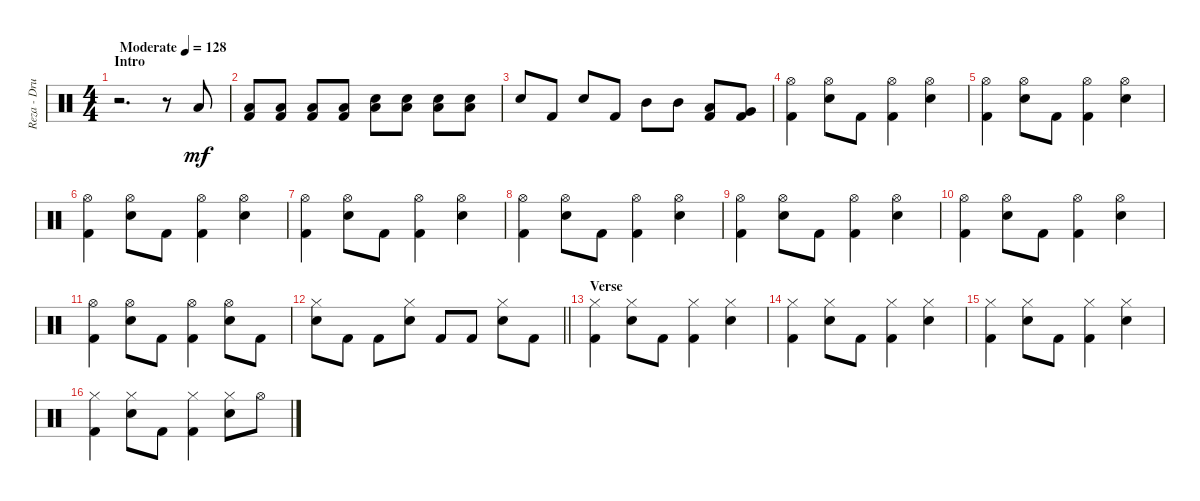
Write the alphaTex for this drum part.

\track ("Reza - Drum" "Reza - Dru") {instrument percussion}
\staff {score}
\articulation defaults
\ts (4 4)
\section ("" "Intro")
\tempo (128 "Moderate")
\clef neutral
\ks c
r.2{d dy mf} r.8 "Low Floor Tom (hit)".8 |
("Low Floor Tom (hit)" "Kick (hit) 2").8 ("Low Floor Tom (hit)" "Kick (hit) 2").8 ("Low Floor Tom (hit)" "Kick (hit) 2").8 ("Low Floor Tom (hit)" "Kick (hit) 2").8 ("Low Floor Tom (hit)" "Electric Snare (hit)").8 ("Low Floor Tom (hit)" "Electric Snare (hit)").8 ("Low Floor Tom (hit)" "Electric Snare (hit)").8 ("Low Floor Tom (hit)" "Electric Snare (hit)").8 |
"Electric Snare (hit)".8 "Kick (hit) 2".8 "Electric Snare (hit)".8 "Kick (hit) 2".8 "Mid Tom (hit)".8 "Mid Tom (hit)".8 ("Low Tom (hit)" "Kick (hit) 2").8 ("Very Low Tom (hit)" "Kick (hit) 2").8 |
("Hi-Hat (open)" "Kick (hit) 2").4 ("Hi-Hat (open)" "Electric Snare (hit)").8 "Kick (hit) 2".8 ("Hi-Hat (open)" "Kick (hit) 2").4 ("Hi-Hat (open)" "Electric Snare (hit)").4 |
("Hi-Hat (open)" "Kick (hit) 2").4 ("Hi-Hat (open)" "Electric Snare (hit)").8 "Kick (hit) 2".8 ("Hi-Hat (open)" "Kick (hit) 2").4 ("Hi-Hat (open)" "Electric Snare (hit)").4 |
("Hi-Hat (open)" "Kick (hit) 2").4 ("Hi-Hat (open)" "Electric Snare (hit)").8 "Kick (hit) 2".8 ("Hi-Hat (open)" "Kick (hit) 2").4 ("Hi-Hat (open)" "Electric Snare (hit)").4 |
("Hi-Hat (open)" "Kick (hit) 2").4 ("Hi-Hat (open)" "Electric Snare (hit)").8 "Kick (hit) 2".8 ("Hi-Hat (open)" "Kick (hit) 2").4 ("Hi-Hat (open)" "Electric Snare (hit)").4 |
("Hi-Hat (open)" "Kick (hit) 2").4 ("Hi-Hat (open)" "Electric Snare (hit)").8 "Kick (hit) 2".8 ("Hi-Hat (open)" "Kick (hit) 2").4 ("Hi-Hat (open)" "Electric Snare (hit)").4 |
("Hi-Hat (open)" "Kick (hit) 2").4 ("Hi-Hat (open)" "Electric Snare (hit)").8 "Kick (hit) 2".8 ("Hi-Hat (open)" "Kick (hit) 2").4 ("Hi-Hat (open)" "Electric Snare (hit)").4 |
("Hi-Hat (open)" "Kick (hit) 2").4 ("Hi-Hat (open)" "Electric Snare (hit)").8 "Kick (hit) 2".8 ("Hi-Hat (open)" "Kick (hit) 2").4 ("Hi-Hat (open)" "Electric Snare (hit)").4 |
("Hi-Hat (open)" "Kick (hit) 2").4 ("Hi-Hat (open)" "Electric Snare (hit)").8 "Kick (hit) 2".8 ("Hi-Hat (open)" "Kick (hit) 2").4 ("Hi-Hat (open)" "Electric Snare (hit)").8 "Kick (hit) 2".8 |
\barLineRight lightlight
("Hi-Hat (closed)" "Electric Snare (hit)").8 "Kick (hit) 2".8 "Kick (hit) 2".8 ("Hi-Hat (closed)" "Electric Snare (hit)").8 "Kick (hit) 2".8 "Kick (hit) 2".8 ("Hi-Hat (closed)" "Electric Snare (hit)").8 "Kick (hit) 2".8 |
\section ("" "Verse")
("Hi-Hat (closed)" "Kick (hit) 2").4 ("Hi-Hat (closed)" "Electric Snare (hit)").8 "Kick (hit) 2".8 ("Hi-Hat (closed)" "Kick (hit) 2").4 ("Hi-Hat (closed)" "Electric Snare (hit)").4 |
("Hi-Hat (closed)" "Kick (hit) 2").4 ("Hi-Hat (closed)" "Electric Snare (hit)").8 "Kick (hit) 2".8 ("Hi-Hat (closed)" "Kick (hit) 2").4 ("Hi-Hat (closed)" "Electric Snare (hit)").4 |
("Hi-Hat (closed)" "Kick (hit) 2").4 ("Hi-Hat (closed)" "Electric Snare (hit)").8 "Kick (hit) 2".8 ("Hi-Hat (closed)" "Kick (hit) 2").4 ("Hi-Hat (closed)" "Electric Snare (hit)").4 |
("Hi-Hat (closed)" "Kick (hit) 2").4 ("Hi-Hat (closed)" "Electric Snare (hit)").8 "Kick (hit) 2".8 ("Hi-Hat (closed)" "Kick (hit) 2").4 ("Hi-Hat (closed)" "Electric Snare (hit)").8 "Hi-Hat (open)".8
